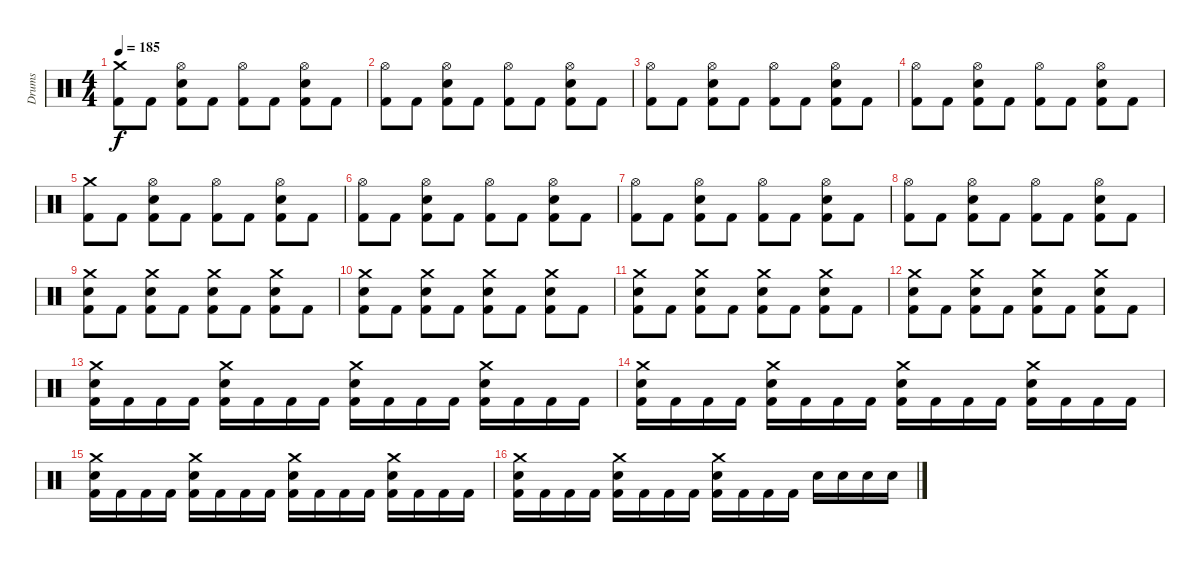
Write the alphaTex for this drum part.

\track ("Drums" "Drums") {solo instrument percussion}
\staff {score}
\articulation defaults
\ts (4 4)
\tempo 185
\clef neutral
\ks c
("Crash medium (hit)" "Kick (hit) 2").8{dy f} "Kick (hit) 2".8 ("Snare (hit) 2" "Hi-Hat (open)" "Kick (hit) 2").8 "Kick (hit) 2".8 ("Hi-Hat (open)" "Kick (hit) 2").8 "Kick (hit) 2".8 ("Snare (hit) 2" "Hi-Hat (open)" "Kick (hit) 2").8 "Kick (hit) 2".8 |
("Hi-Hat (open)" "Kick (hit) 2").8 "Kick (hit) 2".8 ("Snare (hit) 2" "Hi-Hat (open)" "Kick (hit) 2").8 "Kick (hit) 2".8 ("Hi-Hat (open)" "Kick (hit) 2").8 "Kick (hit) 2".8 ("Snare (hit) 2" "Hi-Hat (open)" "Kick (hit) 2").8 "Kick (hit) 2".8 |
("Hi-Hat (open)" "Kick (hit) 2").8 "Kick (hit) 2".8 ("Snare (hit) 2" "Hi-Hat (open)" "Kick (hit) 2").8 "Kick (hit) 2".8 ("Hi-Hat (open)" "Kick (hit) 2").8 "Kick (hit) 2".8 ("Snare (hit) 2" "Hi-Hat (open)" "Kick (hit) 2").8 "Kick (hit) 2".8 |
("Hi-Hat (open)" "Kick (hit) 2").8 "Kick (hit) 2".8 ("Snare (hit) 2" "Hi-Hat (open)" "Kick (hit) 2").8 "Kick (hit) 2".8 ("Hi-Hat (open)" "Kick (hit) 2").8 "Kick (hit) 2".8 ("Snare (hit) 2" "Hi-Hat (open)" "Kick (hit) 2").8 "Kick (hit) 2".8 |
("Crash medium (hit)" "Kick (hit) 2").8 "Kick (hit) 2".8 ("Snare (hit) 2" "Hi-Hat (open)" "Kick (hit) 2").8 "Kick (hit) 2".8 ("Hi-Hat (open)" "Kick (hit) 2").8 "Kick (hit) 2".8 ("Snare (hit) 2" "Hi-Hat (open)" "Kick (hit) 2").8 "Kick (hit) 2".8 |
("Hi-Hat (open)" "Kick (hit) 2").8 "Kick (hit) 2".8 ("Snare (hit) 2" "Hi-Hat (open)" "Kick (hit) 2").8 "Kick (hit) 2".8 ("Hi-Hat (open)" "Kick (hit) 2").8 "Kick (hit) 2".8 ("Snare (hit) 2" "Hi-Hat (open)" "Kick (hit) 2").8 "Kick (hit) 2".8 |
("Hi-Hat (open)" "Kick (hit) 2").8 "Kick (hit) 2".8 ("Snare (hit) 2" "Hi-Hat (open)" "Kick (hit) 2").8 "Kick (hit) 2".8 ("Hi-Hat (open)" "Kick (hit) 2").8 "Kick (hit) 2".8 ("Snare (hit) 2" "Hi-Hat (open)" "Kick (hit) 2").8 "Kick (hit) 2".8 |
("Hi-Hat (open)" "Kick (hit) 2").8 "Kick (hit) 2".8 ("Snare (hit) 2" "Hi-Hat (open)" "Kick (hit) 2").8 "Kick (hit) 2".8 ("Hi-Hat (open)" "Kick (hit) 2").8 "Kick (hit) 2".8 ("Snare (hit) 2" "Hi-Hat (open)" "Kick (hit) 2").8 "Kick (hit) 2".8 |
("Crash medium (hit)" "Snare (hit) 2" "Kick (hit) 2").8 "Kick (hit) 2".8 ("Crash medium (hit)" "Snare (hit) 2" "Kick (hit) 2").8 "Kick (hit) 2".8 ("Crash medium (hit)" "Snare (hit) 2" "Kick (hit) 2").8 "Kick (hit) 2".8 ("Crash medium (hit)" "Snare (hit) 2" "Kick (hit) 2").8 "Kick (hit) 2".8 |
("Crash medium (hit)" "Snare (hit) 2" "Kick (hit) 2").8 "Kick (hit) 2".8 ("Crash medium (hit)" "Snare (hit) 2" "Kick (hit) 2").8 "Kick (hit) 2".8 ("Crash medium (hit)" "Snare (hit) 2" "Kick (hit) 2").8 "Kick (hit) 2".8 ("Crash medium (hit)" "Snare (hit) 2" "Kick (hit) 2").8 "Kick (hit) 2".8 |
("Crash medium (hit)" "Snare (hit) 2" "Kick (hit) 2").8 "Kick (hit) 2".8 ("Crash medium (hit)" "Snare (hit) 2" "Kick (hit) 2").8 "Kick (hit) 2".8 ("Crash medium (hit)" "Snare (hit) 2" "Kick (hit) 2").8 "Kick (hit) 2".8 ("Crash medium (hit)" "Snare (hit) 2" "Kick (hit) 2").8 "Kick (hit) 2".8 |
("Crash medium (hit)" "Snare (hit) 2" "Kick (hit) 2").8 "Kick (hit) 2".8 ("Crash medium (hit)" "Snare (hit) 2" "Kick (hit) 2").8 "Kick (hit) 2".8 ("Crash medium (hit)" "Snare (hit) 2" "Kick (hit) 2").8 "Kick (hit) 2".8 ("Crash medium (hit)" "Snare (hit) 2" "Kick (hit) 2").8 "Kick (hit) 2".8 |
("Crash medium (hit)" "Snare (hit) 2" "Kick (hit) 2").16 "Kick (hit) 2".16 "Kick (hit) 2".16 "Kick (hit) 2".16 ("Crash medium (hit)" "Snare (hit) 2" "Kick (hit) 2").16 "Kick (hit) 2".16 "Kick (hit) 2".16 "Kick (hit) 2".16 ("Crash medium (hit)" "Snare (hit) 2" "Kick (hit) 2").16 "Kick (hit) 2".16 "Kick (hit) 2".16 "Kick (hit) 2".16 ("Crash medium (hit)" "Snare (hit) 2" "Kick (hit) 2").16 "Kick (hit) 2".16 "Kick (hit) 2".16 "Kick (hit) 2".16 |
("Crash medium (hit)" "Snare (hit) 2" "Kick (hit) 2").16 "Kick (hit) 2".16 "Kick (hit) 2".16 "Kick (hit) 2".16 ("Crash medium (hit)" "Snare (hit) 2" "Kick (hit) 2").16 "Kick (hit) 2".16 "Kick (hit) 2".16 "Kick (hit) 2".16 ("Crash medium (hit)" "Snare (hit) 2" "Kick (hit) 2").16 "Kick (hit) 2".16 "Kick (hit) 2".16 "Kick (hit) 2".16 ("Crash medium (hit)" "Snare (hit) 2" "Kick (hit) 2").16 "Kick (hit) 2".16 "Kick (hit) 2".16 "Kick (hit) 2".16 |
("Crash medium (hit)" "Snare (hit) 2" "Kick (hit) 2").16 "Kick (hit) 2".16 "Kick (hit) 2".16 "Kick (hit) 2".16 ("Crash medium (hit)" "Snare (hit) 2" "Kick (hit) 2").16 "Kick (hit) 2".16 "Kick (hit) 2".16 "Kick (hit) 2".16 ("Crash medium (hit)" "Snare (hit) 2" "Kick (hit) 2").16 "Kick (hit) 2".16 "Kick (hit) 2".16 "Kick (hit) 2".16 ("Crash medium (hit)" "Snare (hit) 2" "Kick (hit) 2").16 "Kick (hit) 2".16 "Kick (hit) 2".16 "Kick (hit) 2".16 |
("Crash medium (hit)" "Snare (hit) 2" "Kick (hit) 2").16 "Kick (hit) 2".16 "Kick (hit) 2".16 "Kick (hit) 2".16 ("Crash medium (hit)" "Snare (hit) 2" "Kick (hit) 2").16 "Kick (hit) 2".16 "Kick (hit) 2".16 "Kick (hit) 2".16 ("Crash medium (hit)" "Snare (hit) 2" "Kick (hit) 2").16 "Kick (hit) 2".16 "Kick (hit) 2".16 "Kick (hit) 2".16 "Snare (hit) 2".16 "Snare (hit) 2".16 "Snare (hit) 2".16 "Snare (hit) 2".16
